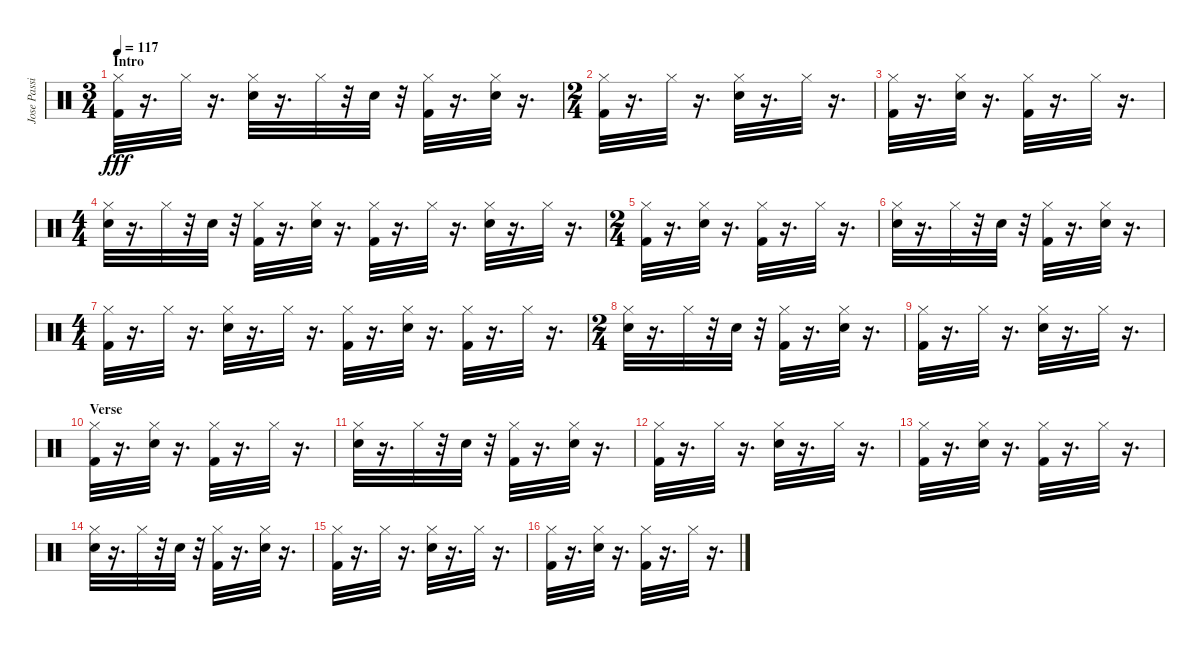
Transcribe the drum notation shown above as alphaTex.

\track ("Jose Passilas-drums" "Jose Passi") {instrument percussion}
\staff {score}
\articulation defaults
\ts (3 4)
\section ("" "Intro")
\tempo 117
\clef neutral
\ks c
("Hi-Hat (closed)" "Kick (hit) 2").32{dy fff} r.16{d} "Hi-Hat (closed)".32 r.16{d} ("Electric Snare (hit)" "Hi-Hat (closed)").32 r.16{d} "Hi-Hat (closed)".32 r.32 "Electric Snare (hit)".32 r.32 ("Hi-Hat (closed)" "Kick (hit) 2").32 r.16{d} ("Electric Snare (hit)" "Hi-Hat (closed)").32 r.16{d} |
\ts (2 4)
("Hi-Hat (closed)" "Kick (hit) 2").32 r.16{d} "Hi-Hat (closed)".32 r.16{d} ("Electric Snare (hit)" "Hi-Hat (closed)").32 r.16{d} "Hi-Hat (closed)".32 r.16{d} |
("Hi-Hat (closed)" "Kick (hit) 2").32 r.16{d} ("Electric Snare (hit)" "Hi-Hat (closed)").32 r.16{d} ("Kick (hit) 2" "Hi-Hat (closed)").32 r.16{d} "Hi-Hat (closed)".32 r.16{d} |
\ts (4 4)
("Electric Snare (hit)" "Hi-Hat (closed)").32 r.16{d} "Hi-Hat (closed)".32 r.32 "Electric Snare (hit)".32 r.32 ("Kick (hit) 2" "Hi-Hat (closed)").32 r.16{d} ("Electric Snare (hit)" "Hi-Hat (closed)").32 r.16{d} ("Kick (hit) 2" "Hi-Hat (closed)").32 r.16{d} "Hi-Hat (closed)".32 r.16{d} ("Electric Snare (hit)" "Hi-Hat (closed)").32 r.16{d} "Hi-Hat (closed)".32 r.16{d} |
\ts (2 4)
("Kick (hit) 2" "Hi-Hat (closed)").32 r.16{d} ("Electric Snare (hit)" "Hi-Hat (closed)").32 r.16{d} ("Hi-Hat (closed)" "Kick (hit) 2").32 r.16{d} "Hi-Hat (closed)".32 r.16{d} |
("Electric Snare (hit)" "Hi-Hat (closed)").32 r.16{d} "Hi-Hat (closed)".32 r.32 "Electric Snare (hit)".32 r.32 ("Hi-Hat (closed)" "Kick (hit) 2").32 r.16{d} ("Electric Snare (hit)" "Hi-Hat (closed)").32 r.16{d} |
\ts (4 4)
("Hi-Hat (closed)" "Kick (hit) 2").32 r.16{d} "Hi-Hat (closed)".32 r.16{d} ("Electric Snare (hit)" "Hi-Hat (closed)").32 r.16{d} "Hi-Hat (closed)".32 r.16{d} ("Hi-Hat (closed)" "Kick (hit) 2").32 r.16{d} ("Electric Snare (hit)" "Hi-Hat (closed)").32 r.16{d} ("Kick (hit) 2" "Hi-Hat (closed)").32 r.16{d} "Hi-Hat (closed)".32 r.16{d} |
\ts (2 4)
("Electric Snare (hit)" "Hi-Hat (closed)").32 r.16{d} "Hi-Hat (closed)".32 r.32 "Electric Snare (hit)".32 r.32 ("Kick (hit) 2" "Hi-Hat (closed)").32 r.16{d} ("Electric Snare (hit)" "Hi-Hat (closed)").32 r.16{d} |
("Kick (hit) 2" "Hi-Hat (closed)").32 r.16{d} "Hi-Hat (closed)".32 r.16{d} ("Electric Snare (hit)" "Hi-Hat (closed)").32 r.16{d} "Hi-Hat (closed)".32 r.16{d} |
\section ("" "Verse")
("Kick (hit) 2" "Hi-Hat (closed)").32 r.16{d} ("Electric Snare (hit)" "Hi-Hat (closed)").32 r.16{d} ("Hi-Hat (closed)" "Kick (hit) 2").32 r.16{d} "Hi-Hat (closed)".32 r.16{d} |
("Electric Snare (hit)" "Hi-Hat (closed)").32 r.16{d} "Hi-Hat (closed)".32 r.32 "Electric Snare (hit)".32 r.32 ("Hi-Hat (closed)" "Kick (hit) 2").32 r.16{d} ("Electric Snare (hit)" "Hi-Hat (closed)").32 r.16{d} |
("Hi-Hat (closed)" "Kick (hit) 2").32 r.16{d} "Hi-Hat (closed)".32 r.16{d} ("Electric Snare (hit)" "Hi-Hat (closed)").32 r.16{d} "Hi-Hat (closed)".32 r.16{d} |
("Hi-Hat (closed)" "Kick (hit) 2").32 r.16{d} ("Electric Snare (hit)" "Hi-Hat (closed)").32 r.16{d} ("Kick (hit) 2" "Hi-Hat (closed)").32 r.16{d} "Hi-Hat (closed)".32 r.16{d} |
("Electric Snare (hit)" "Hi-Hat (closed)").32 r.16{d} "Hi-Hat (closed)".32 r.32 "Electric Snare (hit)".32 r.32 ("Kick (hit) 2" "Hi-Hat (closed)").32 r.16{d} ("Electric Snare (hit)" "Hi-Hat (closed)").32 r.16{d} |
("Kick (hit) 2" "Hi-Hat (closed)").32 r.16{d} "Hi-Hat (closed)".32 r.16{d} ("Electric Snare (hit)" "Hi-Hat (closed)").32 r.16{d} "Hi-Hat (closed)".32 r.16{d} |
("Kick (hit) 2" "Hi-Hat (closed)").32 r.16{d} ("Electric Snare (hit)" "Hi-Hat (closed)").32 r.16{d} ("Hi-Hat (closed)" "Kick (hit) 2").32 r.16{d} "Hi-Hat (closed)".32 r.16{d}
